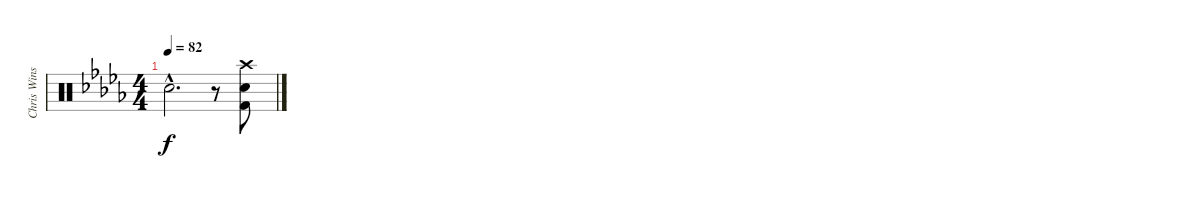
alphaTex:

\track ("Chris Winship (Drums)" "Chris Wins") {instrument percussion}
\staff {score}
\articulation defaults
\ts (4 4)
\tempo 82
\clef neutral
\ks db "Snare (hit)"{hac t}.2{d dy f}
r.8 ("Kick (hit) 2" "Electric Snare (hit)" "Crash high (hit)").8
